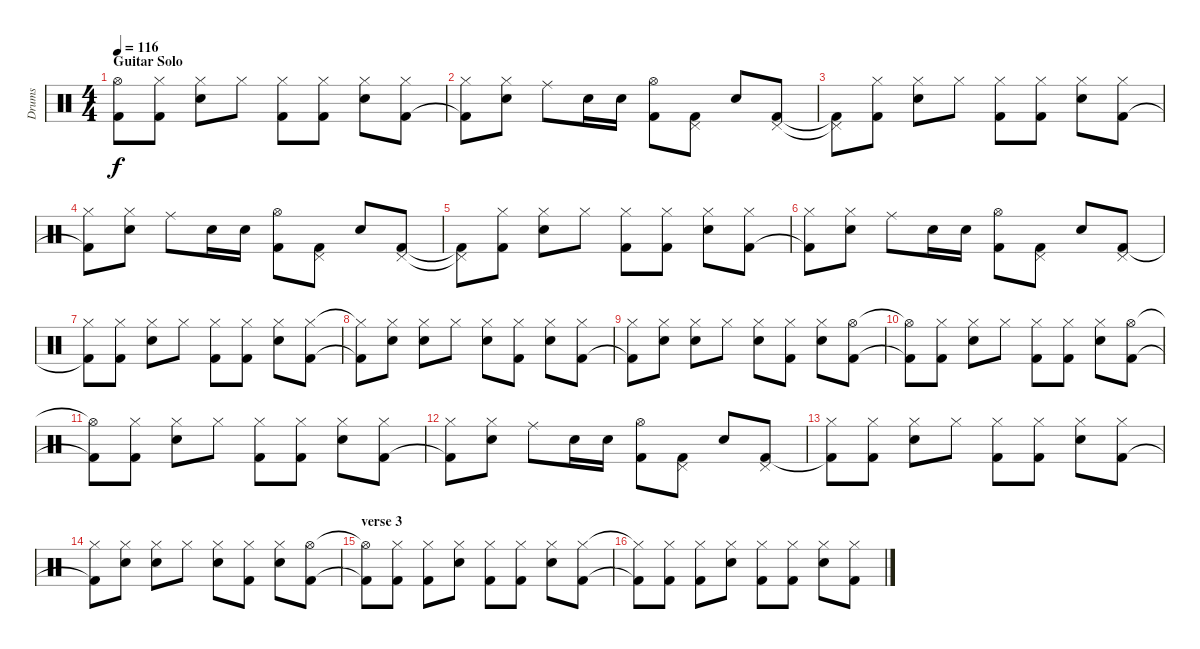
\track ("Drums" "Drums") {instrument percussion}
\staff {score}
\articulation defaults
\ts (4 4)
\section ("" "Guitar Solo")
\tempo 116
\clef neutral
\ks c
("Hi-Hat (open)"{t} "Kick (hit) 2"{t}).8{dy f} ("Hi-Hat (closed)" "Kick (hit) 2").8 ("Hi-Hat (closed)" "Snare (hit) 2").8 "Hi-Hat (closed)".8 ("Hi-Hat (closed)" "Kick (hit) 2").8 ("Hi-Hat (closed)" "Kick (hit) 2").8 ("Hi-Hat (closed)" "Snare (hit) 2").8 ("Hi-Hat (closed)" "Kick (hit) 2").8 |
("Hi-Hat (closed)" "Kick (hit) 2"{t}).8 ("Hi-Hat (closed)" "Snare (hit) 2").8 "Ride (middle)".8 "Snare (hit) 2".16 "Snare (hit) 2".16 ("Hi-Hat (open)" "Kick (hit) 2").8 ("Pedal Hi-Hat (hit)" "Kick (hit) 2").8 "Snare (hit) 2".8 ("Pedal Hi-Hat (hit)" "Kick (hit) 2").8 |
("Pedal Hi-Hat (hit)"{t} "Kick (hit) 2"{t}).8 ("Hi-Hat (closed)" "Kick (hit) 2").8 ("Hi-Hat (closed)" "Snare (hit) 2").8 "Hi-Hat (closed)".8 ("Hi-Hat (closed)" "Kick (hit) 2").8 ("Hi-Hat (closed)" "Kick (hit) 2").8 ("Hi-Hat (closed)" "Snare (hit) 2").8 ("Hi-Hat (closed)" "Kick (hit) 2").8 |
("Hi-Hat (closed)" "Kick (hit) 2"{t}).8 ("Hi-Hat (closed)" "Snare (hit) 2").8 "Ride (middle)".8 "Snare (hit) 2".16 "Snare (hit) 2".16 ("Hi-Hat (open)" "Kick (hit) 2").8 ("Pedal Hi-Hat (hit)" "Kick (hit) 2").8 "Snare (hit) 2".8 ("Pedal Hi-Hat (hit)" "Kick (hit) 2").8 |
("Pedal Hi-Hat (hit)"{t} "Kick (hit) 2"{t}).8 ("Hi-Hat (closed)" "Kick (hit) 2").8 ("Hi-Hat (closed)" "Snare (hit) 2").8 "Hi-Hat (closed)".8 ("Hi-Hat (closed)" "Kick (hit) 2").8 ("Hi-Hat (closed)" "Kick (hit) 2").8 ("Hi-Hat (closed)" "Snare (hit) 2").8 ("Hi-Hat (closed)" "Kick (hit) 2").8 |
("Hi-Hat (closed)" "Kick (hit) 2"{t}).8 ("Hi-Hat (closed)" "Snare (hit) 2").8 "Ride (middle)".8 "Snare (hit) 2".16 "Snare (hit) 2".16 ("Hi-Hat (open)" "Kick (hit) 2").8 ("Pedal Hi-Hat (hit)" "Kick (hit) 2").8 "Snare (hit) 2".8 ("Pedal Hi-Hat (hit)" "Kick (hit) 2").8 |
("Hi-Hat (closed)" "Kick (hit) 2"{t}).8 ("Hi-Hat (closed)" "Kick (hit) 2").8 ("Hi-Hat (closed)" "Snare (hit) 2").8 "Hi-Hat (closed)".8 ("Hi-Hat (closed)" "Kick (hit) 2").8 ("Hi-Hat (closed)" "Kick (hit) 2").8 ("Hi-Hat (closed)" "Snare (hit) 2").8 ("Hi-Hat (closed)" "Kick (hit) 2").8 |
("Hi-Hat (closed)"{t} "Kick (hit) 2"{t}).8 ("Hi-Hat (closed)" "Snare (hit) 2").8 ("Hi-Hat (closed)" "Snare (hit) 2").8 "Hi-Hat (closed)".8 ("Hi-Hat (closed)" "Snare (hit) 2").8 ("Hi-Hat (closed)" "Kick (hit) 2").8 ("Hi-Hat (closed)" "Snare (hit) 2").8 ("Hi-Hat (closed)" "Kick (hit) 2").8 |
("Hi-Hat (closed)" "Kick (hit) 2"{t}).8 ("Hi-Hat (closed)" "Snare (hit) 2").8 ("Hi-Hat (closed)" "Snare (hit) 2").8 "Hi-Hat (closed)".8 ("Hi-Hat (closed)" "Snare (hit) 2").8 ("Hi-Hat (closed)" "Kick (hit) 2").8 ("Hi-Hat (closed)" "Snare (hit) 2").8 ("Hi-Hat (open)" "Kick (hit) 2").8 |
("Hi-Hat (open)"{t} "Kick (hit) 2"{t}).8 ("Hi-Hat (closed)" "Kick (hit) 2").8 ("Hi-Hat (closed)" "Snare (hit) 2").8 "Hi-Hat (closed)".8 ("Hi-Hat (closed)" "Kick (hit) 2").8 ("Hi-Hat (closed)" "Kick (hit) 2").8 ("Hi-Hat (closed)" "Snare (hit) 2").8 ("Hi-Hat (open)" "Kick (hit) 2").8 |
("Hi-Hat (open)"{t} "Kick (hit) 2"{t}).8 ("Hi-Hat (closed)" "Kick (hit) 2").8 ("Hi-Hat (closed)" "Snare (hit) 2").8 "Hi-Hat (closed)".8 ("Hi-Hat (closed)" "Kick (hit) 2").8 ("Hi-Hat (closed)" "Kick (hit) 2").8 ("Hi-Hat (closed)" "Snare (hit) 2").8 ("Hi-Hat (closed)" "Kick (hit) 2").8 |
("Hi-Hat (closed)" "Kick (hit) 2"{t}).8 ("Hi-Hat (closed)" "Snare (hit) 2").8 "Ride (middle)".8 "Snare (hit) 2".16 "Snare (hit) 2".16 ("Hi-Hat (open)" "Kick (hit) 2").8 ("Pedal Hi-Hat (hit)" "Kick (hit) 2").8 "Snare (hit) 2".8 ("Pedal Hi-Hat (hit)" "Kick (hit) 2").8 |
("Hi-Hat (closed)" "Kick (hit) 2"{t}).8 ("Hi-Hat (closed)" "Kick (hit) 2").8 ("Hi-Hat (closed)" "Snare (hit) 2").8 "Hi-Hat (closed)".8 ("Hi-Hat (closed)" "Kick (hit) 2").8 ("Hi-Hat (closed)" "Kick (hit) 2").8 ("Hi-Hat (closed)" "Snare (hit) 2").8 ("Hi-Hat (closed)" "Kick (hit) 2").8 |
("Hi-Hat (closed)" "Kick (hit) 2"{t}).8 ("Hi-Hat (closed)" "Snare (hit) 2").8 ("Hi-Hat (closed)" "Snare (hit) 2").8 "Hi-Hat (closed)".8 ("Hi-Hat (closed)" "Snare (hit) 2").8 ("Hi-Hat (closed)" "Kick (hit) 2").8 ("Hi-Hat (closed)" "Snare (hit) 2").8 ("Hi-Hat (open)" "Kick (hit) 2").8 |
\section ("" "verse 3")
("Hi-Hat (open)"{t} "Kick (hit) 2"{t}).8 ("Hi-Hat (closed)" "Kick (hit) 2").8 ("Hi-Hat (closed)" "Kick (hit) 2").8 ("Hi-Hat (closed)" "Snare (hit) 2").8 ("Hi-Hat (closed)" "Kick (hit) 2").8 ("Hi-Hat (closed)" "Kick (hit) 2").8 ("Hi-Hat (closed)" "Snare (hit) 2").8 ("Hi-Hat (closed)" "Kick (hit) 2").8 |
("Hi-Hat (closed)"{t} "Kick (hit) 2"{t}).8 ("Hi-Hat (closed)" "Kick (hit) 2").8 ("Hi-Hat (closed)" "Kick (hit) 2").8 ("Hi-Hat (closed)" "Snare (hit) 2").8 ("Hi-Hat (closed)" "Kick (hit) 2").8 ("Hi-Hat (closed)" "Kick (hit) 2").8 ("Hi-Hat (closed)" "Snare (hit) 2").8 ("Hi-Hat (closed)" "Kick (hit) 2").8
